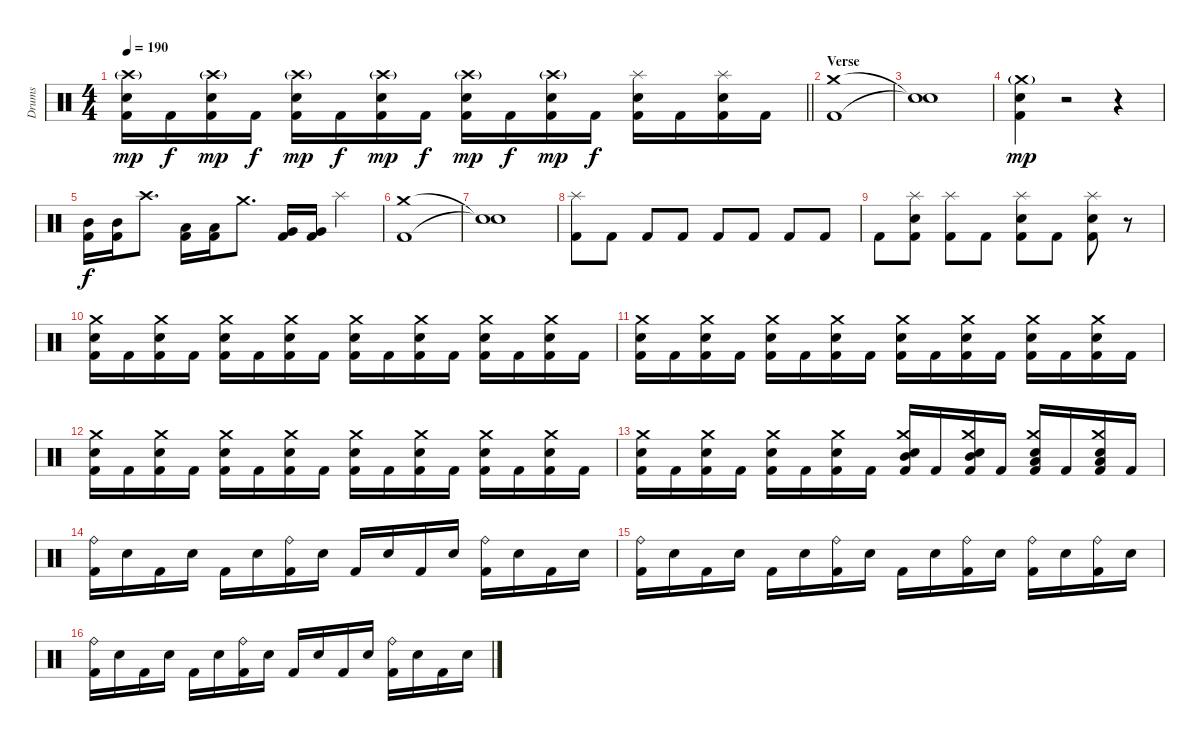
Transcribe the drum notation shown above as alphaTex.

\track ("Drums" "Drums") {instrument percussion}
\staff {score}
\articulation defaults
\ts (4 4)
\tempo 190
\clef neutral
\barLineRight lightlight
\ks c
("Crash high (hit)"{g} "Snare (hit) 2" "Kick (hit) 2").16{dy mp} "Kick (hit) 2".16{dy f} ("Crash high (hit)"{g} "Snare (hit) 2" "Kick (hit) 2").16{dy mp} "Kick (hit) 2".16{dy f} ("Crash high (hit)"{g} "Snare (hit) 2" "Kick (hit) 2").16{dy mp} "Kick (hit) 2".16{dy f} ("Crash high (hit)"{g} "Snare (hit) 2" "Kick (hit) 2").16{dy mp} "Kick (hit) 2".16{dy f} ("Crash high (hit)"{g} "Snare (hit) 2" "Kick (hit) 2").16{dy mp} "Kick (hit) 2".16{dy f} ("Crash high (hit)"{g} "Snare (hit) 2" "Kick (hit) 2").16{dy mp} "Kick (hit) 2".16{dy f} ("Splash (hit)" "Snare (hit) 2" "Kick (hit) 2").16 "Kick (hit) 2".16 ("Splash (hit)" "Snare (hit) 2" "Kick (hit) 2").16 "Kick (hit) 2".16 |
\section ("" "Verse")
("Crash medium (hit)" "Kick (hit) 2").1 |
("Snare (hit)"{t} "Snare (hit)"{t}).1 |
("Crash medium (hit)"{g} "Snare (hit) 2" "Kick (hit) 2").4{dy mp} r.2 r.4 |
("Mid Tom (hit)" "Kick (hit) 2").16{dy f} ("Mid Tom (hit)" "Kick (hit) 2").16 "Crash high (hit)".8{d} ("Low Tom (hit)" "Kick (hit) 2").16 ("Low Tom (hit)" "Kick (hit) 2").16 "Crash medium (hit)".8{d} ("Very Low Tom (hit)" "Kick (hit) 2").16 ("Very Low Tom (hit)" "Kick (hit) 2").16 "Splash (hit)".4 |
("Crash medium (hit)" "Kick (hit) 2").1 |
("Snare (hit)"{t} "Snare (hit)"{t}).1 |
("Splash (hit)" "Kick (hit) 2").8 "Kick (hit) 2".8 "Kick (hit) 2".8 "Kick (hit) 2".8 "Kick (hit) 2".8 "Kick (hit) 2".8 "Kick (hit) 2".8 "Kick (hit) 2".8 |
"Kick (hit) 2".8 ("Splash (hit)" "Snare (hit) 2" "Kick (hit) 2").8 ("Splash (hit)" "Kick (hit) 2").8 "Kick (hit) 2".8 ("Splash (hit)" "Snare (hit) 2" "Kick (hit) 2").8 "Kick (hit) 2".8 ("Splash (hit)" "Snare (hit) 2" "Kick (hit) 2").8 r.8 |
("Crash medium (hit)" "Snare (hit) 2" "Kick (hit) 2").16 "Kick (hit) 2".16 ("Crash medium (hit)" "Snare (hit) 2" "Kick (hit) 2").16 "Kick (hit) 2".16 ("Crash medium (hit)" "Snare (hit) 2" "Kick (hit) 2").16 "Kick (hit) 2".16 ("Crash medium (hit)" "Snare (hit) 2" "Kick (hit) 2").16 "Kick (hit) 2".16 ("Crash medium (hit)" "Snare (hit) 2" "Kick (hit) 2").16 "Kick (hit) 2".16 ("Crash medium (hit)" "Snare (hit) 2" "Kick (hit) 2").16 "Kick (hit) 2".16 ("Crash medium (hit)" "Snare (hit) 2" "Kick (hit) 2").16 "Kick (hit) 2".16 ("Crash medium (hit)" "Snare (hit) 2" "Kick (hit) 2").16 "Kick (hit) 2".16 |
("Crash medium (hit)" "Snare (hit) 2" "Kick (hit) 2").16 "Kick (hit) 2".16 ("Crash medium (hit)" "Snare (hit) 2" "Kick (hit) 2").16 "Kick (hit) 2".16 ("Crash medium (hit)" "Snare (hit) 2" "Kick (hit) 2").16 "Kick (hit) 2".16 ("Crash medium (hit)" "Snare (hit) 2" "Kick (hit) 2").16 "Kick (hit) 2".16 ("Crash medium (hit)" "Snare (hit) 2" "Kick (hit) 2").16 "Kick (hit) 2".16 ("Crash medium (hit)" "Snare (hit) 2" "Kick (hit) 2").16 "Kick (hit) 2".16 ("Crash medium (hit)" "Snare (hit) 2" "Kick (hit) 2").16 "Kick (hit) 2".16 ("Crash medium (hit)" "Snare (hit) 2" "Kick (hit) 2").16 "Kick (hit) 2".16 |
("Crash medium (hit)" "Snare (hit) 2" "Kick (hit) 2").16 "Kick (hit) 2".16 ("Crash medium (hit)" "Snare (hit) 2" "Kick (hit) 2").16 "Kick (hit) 2".16 ("Crash medium (hit)" "Snare (hit) 2" "Kick (hit) 2").16 "Kick (hit) 2".16 ("Crash medium (hit)" "Snare (hit) 2" "Kick (hit) 2").16 "Kick (hit) 2".16 ("Crash medium (hit)" "Snare (hit) 2" "Kick (hit) 2").16 "Kick (hit) 2".16 ("Crash medium (hit)" "Snare (hit) 2" "Kick (hit) 2").16 "Kick (hit) 2".16 ("Crash medium (hit)" "Snare (hit) 2" "Kick (hit) 2").16 "Kick (hit) 2".16 ("Crash medium (hit)" "Snare (hit) 2" "Kick (hit) 2").16 "Kick (hit) 2".16 |
("Crash medium (hit)" "Snare (hit) 2" "Kick (hit) 2").16 "Kick (hit) 2".16 ("Crash medium (hit)" "Snare (hit) 2" "Kick (hit) 2").16 "Kick (hit) 2".16 ("Crash medium (hit)" "Snare (hit) 2" "Kick (hit) 2").16 "Kick (hit) 2".16 ("Crash medium (hit)" "Snare (hit) 2" "Kick (hit) 2").16 "Kick (hit) 2".16 ("Crash medium (hit)" "Mid Tom (hit)" "Snare (hit) 2" "Kick (hit) 2").16 "Kick (hit) 2".16 ("Crash medium (hit)" "Mid Tom (hit)" "Snare (hit) 2" "Kick (hit) 2").16 "Kick (hit) 2".16 ("Crash medium (hit)" "Low Tom (hit)" "Snare (hit) 2" "Kick (hit) 2").16 "Kick (hit) 2".16 ("Crash medium (hit)" "Low Tom (hit)" "Snare (hit) 2" "Kick (hit) 2").16 "Kick (hit) 2".16 |
("Ride (bell)" "Kick (hit) 2").16 "Snare (hit) 2".16 "Kick (hit) 2".16 "Snare (hit) 2".16 "Kick (hit) 2".16 "Snare (hit) 2".16 ("Ride (bell)" "Kick (hit) 2").16 "Snare (hit) 2".16 "Kick (hit) 2".16 "Snare (hit) 2".16 "Kick (hit) 2".16 "Snare (hit) 2".16 ("Ride (bell)" "Kick (hit) 2").16 "Snare (hit) 2".16 "Kick (hit) 2".16 "Snare (hit) 2".16 |
("Ride (bell)" "Kick (hit) 2").16 "Snare (hit) 2".16 "Kick (hit) 2".16 "Snare (hit) 2".16 "Kick (hit) 2".16 "Snare (hit) 2".16 ("Ride (bell)" "Kick (hit) 2").16 "Snare (hit) 2".16 "Kick (hit) 2".16 "Snare (hit) 2".16 ("Ride (bell)" "Kick (hit) 2").16 "Snare (hit) 2".16 ("Ride (bell)" "Kick (hit) 2").16 "Snare (hit) 2".16 ("Ride (bell)" "Kick (hit) 2").16 "Snare (hit) 2".16 |
("Ride (bell)" "Kick (hit) 2").16 "Snare (hit) 2".16 "Kick (hit) 2".16 "Snare (hit) 2".16 "Kick (hit) 2".16 "Snare (hit) 2".16 ("Ride (bell)" "Kick (hit) 2").16 "Snare (hit) 2".16 "Kick (hit) 2".16 "Snare (hit) 2".16 "Kick (hit) 2".16 "Snare (hit) 2".16 ("Ride (bell)" "Kick (hit) 2").16 "Snare (hit) 2".16 "Kick (hit) 2".16 "Snare (hit) 2".16
